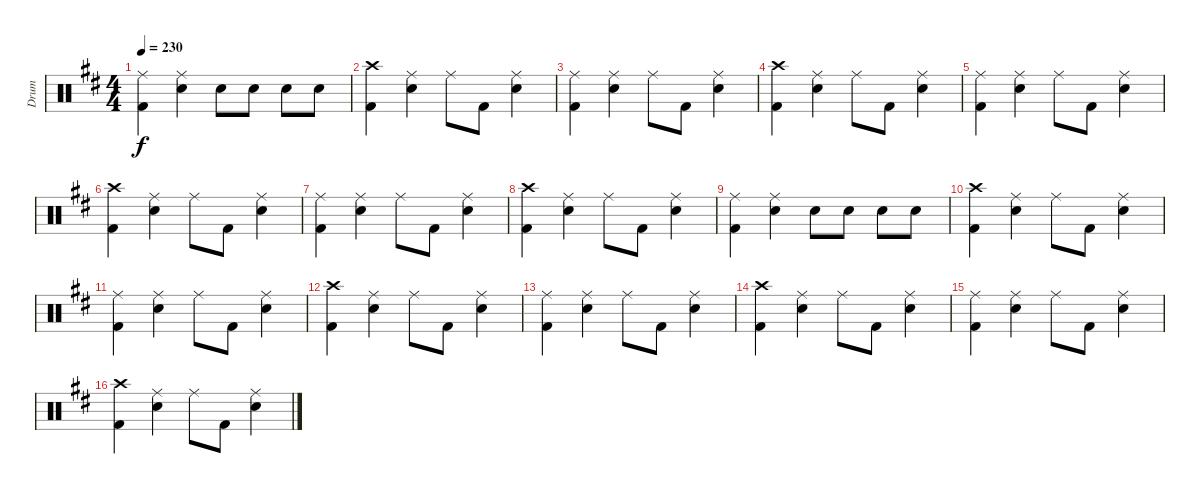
\track ("Drum" "Drum") {instrument percussion}
\staff {score}
\articulation defaults
\ts (4 4)
\tempo 230
\clef neutral
\ks d
("Ride (middle)" "Kick (hit) 2").4{dy f} ("Ride (middle)" "Snare (hit) 2").4 "Snare (hit) 2".8 "Snare (hit) 2".8 "Snare (hit) 2".8 "Snare (hit) 2".8 |
("Crash high (hit)" "Kick (hit) 2").4 ("Ride (middle)" "Snare (hit) 2").4 "Ride (middle)".8 "Kick (hit) 2".8 ("Ride (middle)" "Snare (hit) 2").4 |
("Ride (middle)" "Kick (hit) 2").4 ("Ride (middle)" "Snare (hit) 2").4 "Ride (middle)".8 "Kick (hit) 2".8 ("Ride (middle)" "Snare (hit) 2").4 |
("Crash high (hit)" "Kick (hit) 2").4 ("Ride (middle)" "Snare (hit) 2").4 "Ride (middle)".8 "Kick (hit) 2".8 ("Ride (middle)" "Snare (hit) 2").4 |
("Ride (middle)" "Kick (hit) 2").4 ("Ride (middle)" "Snare (hit) 2").4 "Ride (middle)".8 "Kick (hit) 2".8 ("Ride (middle)" "Snare (hit) 2").4 |
("Crash high (hit)" "Kick (hit) 2").4 ("Ride (middle)" "Snare (hit) 2").4 "Ride (middle)".8 "Kick (hit) 2".8 ("Ride (middle)" "Snare (hit) 2").4 |
("Ride (middle)" "Kick (hit) 2").4 ("Ride (middle)" "Snare (hit) 2").4 "Ride (middle)".8 "Kick (hit) 2".8 ("Ride (middle)" "Snare (hit) 2").4 |
("Crash high (hit)" "Kick (hit) 2").4 ("Ride (middle)" "Snare (hit) 2").4 "Ride (middle)".8 "Kick (hit) 2".8 ("Ride (middle)" "Snare (hit) 2").4 |
("Ride (middle)" "Kick (hit) 2").4 ("Ride (middle)" "Snare (hit) 2").4 "Snare (hit) 2".8 "Snare (hit) 2".8 "Snare (hit) 2".8 "Snare (hit) 2".8 |
("Crash high (hit)" "Kick (hit) 2").4 ("Ride (middle)" "Snare (hit) 2").4 "Ride (middle)".8 "Kick (hit) 2".8 ("Ride (middle)" "Snare (hit) 2").4 |
("Ride (middle)" "Kick (hit) 2").4 ("Ride (middle)" "Snare (hit) 2").4 "Ride (middle)".8 "Kick (hit) 2".8 ("Ride (middle)" "Snare (hit) 2").4 |
("Crash high (hit)" "Kick (hit) 2").4 ("Ride (middle)" "Snare (hit) 2").4 "Ride (middle)".8 "Kick (hit) 2".8 ("Ride (middle)" "Snare (hit) 2").4 |
("Ride (middle)" "Kick (hit) 2").4 ("Ride (middle)" "Snare (hit) 2").4 "Ride (middle)".8 "Kick (hit) 2".8 ("Ride (middle)" "Snare (hit) 2").4 |
("Crash high (hit)" "Kick (hit) 2").4 ("Ride (middle)" "Snare (hit) 2").4 "Ride (middle)".8 "Kick (hit) 2".8 ("Ride (middle)" "Snare (hit) 2").4 |
("Ride (middle)" "Kick (hit) 2").4 ("Ride (middle)" "Snare (hit) 2").4 "Ride (middle)".8 "Kick (hit) 2".8 ("Ride (middle)" "Snare (hit) 2").4 |
("Crash high (hit)" "Kick (hit) 2").4 ("Ride (middle)" "Snare (hit) 2").4 "Ride (middle)".8 "Kick (hit) 2".8 ("Ride (middle)" "Snare (hit) 2").4
